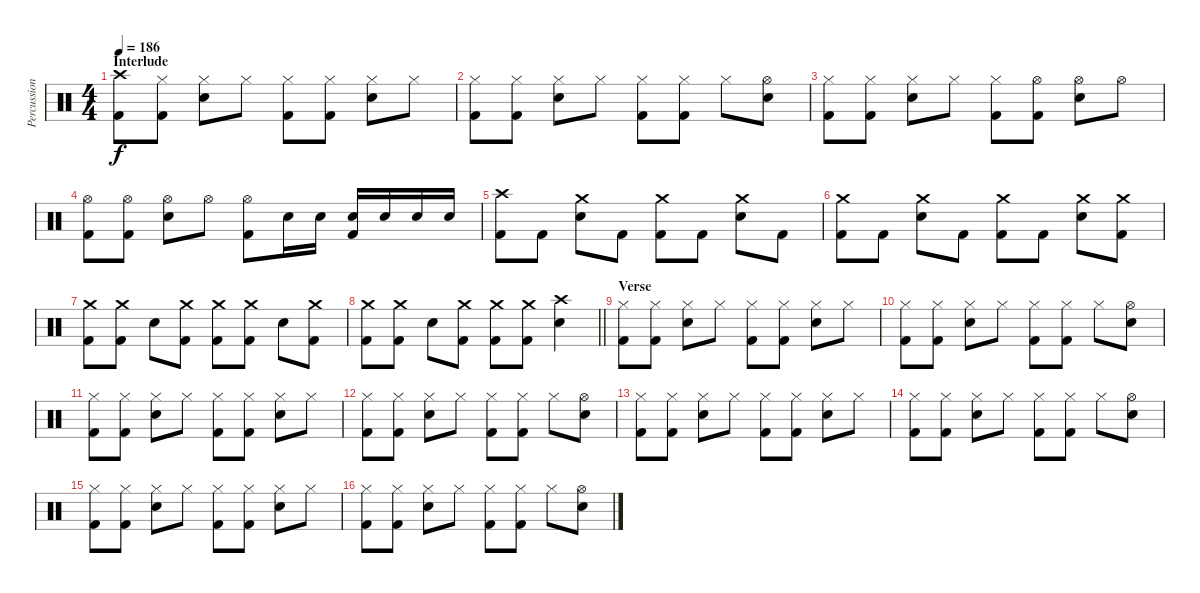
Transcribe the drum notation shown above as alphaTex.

\track ("Percussion" "Percussion") {instrument percussion}
\staff {score}
\articulation defaults
\ts (4 4)
\section ("" "Interlude")
\tempo 186
\clef neutral
\ks c
("Crash high (hit)" "Kick (hit) 2").8{dy f} ("Hi-Hat (closed)" "Kick (hit) 2").8 ("Hi-Hat (closed)" "Electric Snare (hit)").8 "Hi-Hat (closed)".8 ("Hi-Hat (closed)" "Kick (hit) 2").8 ("Hi-Hat (closed)" "Kick (hit) 2").8 ("Hi-Hat (closed)" "Electric Snare (hit)").8 "Hi-Hat (closed)".8 |
("Hi-Hat (closed)" "Kick (hit) 2").8 ("Hi-Hat (closed)" "Kick (hit) 2").8 ("Hi-Hat (closed)" "Electric Snare (hit)").8 "Hi-Hat (closed)".8 ("Hi-Hat (closed)" "Kick (hit) 2").8 ("Hi-Hat (closed)" "Kick (hit) 2").8 "Hi-Hat (closed)".8 ("Hi-Hat (open)" "Electric Snare (hit)").8 |
("Hi-Hat (closed)" "Kick (hit) 2").8 ("Hi-Hat (closed)" "Kick (hit) 2").8 ("Hi-Hat (closed)" "Electric Snare (hit)").8 "Hi-Hat (closed)".8 ("Hi-Hat (closed)" "Kick (hit) 2").8 ("Hi-Hat (open)" "Kick (hit) 2").8 ("Hi-Hat (open)" "Electric Snare (hit)").8 "Hi-Hat (open)".8 |
("Hi-Hat (open)" "Kick (hit) 2").8 ("Hi-Hat (open)" "Kick (hit) 2").8 ("Hi-Hat (open)" "Electric Snare (hit)").8 "Hi-Hat (open)".8 ("Hi-Hat (open)" "Kick (hit) 2").8 "Electric Snare (hit)".16 "Electric Snare (hit)".16 ("Electric Snare (hit)" "Kick (hit) 2").16 "Electric Snare (hit)".16 "Electric Snare (hit)".16 "Electric Snare (hit)".16 |
("Crash high (hit)" "Kick (hit) 2").8 "Kick (hit) 2".8 ("Crash medium (hit)" "Electric Snare (hit)").8 "Kick (hit) 2".8 ("Crash medium (hit)" "Kick (hit) 2").8 "Kick (hit) 2".8 ("Crash medium (hit)" "Electric Snare (hit)").8 "Kick (hit) 2".8 |
("Crash medium (hit)" "Kick (hit) 2").8 "Kick (hit) 2".8 ("Crash medium (hit)" "Electric Snare (hit)").8 "Kick (hit) 2".8 ("Crash medium (hit)" "Kick (hit) 2").8 "Kick (hit) 2".8 ("Crash medium (hit)" "Electric Snare (hit)").8 ("Crash medium (hit)" "Kick (hit) 2").8 |
("Crash medium (hit)" "Kick (hit) 2").8 ("Crash medium (hit)" "Kick (hit) 2").8 "Electric Snare (hit)".8 ("Crash medium (hit)" "Kick (hit) 2").8 ("Crash medium (hit)" "Kick (hit) 2").8 ("Crash medium (hit)" "Kick (hit) 2").8 "Electric Snare (hit)".8 ("Crash medium (hit)" "Kick (hit) 2").8 |
\barLineRight lightlight
("Crash medium (hit)" "Kick (hit) 2").8 ("Crash medium (hit)" "Kick (hit) 2").8 "Electric Snare (hit)".8 ("Crash medium (hit)" "Kick (hit) 2").8 ("Crash medium (hit)" "Kick (hit) 2").8 ("Crash medium (hit)" "Kick (hit) 2").8 ("Crash high (hit)" "Electric Snare (hit)").4 |
\section ("" "Verse")
("Hi-Hat (closed)" "Kick (hit) 2").8 ("Hi-Hat (closed)" "Kick (hit) 2").8 ("Hi-Hat (closed)" "Electric Snare (hit)").8 "Hi-Hat (closed)".8 ("Hi-Hat (closed)" "Kick (hit) 2").8 ("Hi-Hat (closed)" "Kick (hit) 2").8 ("Hi-Hat (closed)" "Electric Snare (hit)").8 "Hi-Hat (closed)".8 |
("Hi-Hat (closed)" "Kick (hit) 2").8 ("Hi-Hat (closed)" "Kick (hit) 2").8 ("Hi-Hat (closed)" "Electric Snare (hit)").8 "Hi-Hat (closed)".8 ("Hi-Hat (closed)" "Kick (hit) 2").8 ("Hi-Hat (closed)" "Kick (hit) 2").8 "Hi-Hat (closed)".8 ("Hi-Hat (open)" "Electric Snare (hit)").8 |
("Hi-Hat (closed)" "Kick (hit) 2").8 ("Hi-Hat (closed)" "Kick (hit) 2").8 ("Hi-Hat (closed)" "Electric Snare (hit)").8 "Hi-Hat (closed)".8 ("Hi-Hat (closed)" "Kick (hit) 2").8 ("Hi-Hat (closed)" "Kick (hit) 2").8 ("Hi-Hat (closed)" "Electric Snare (hit)").8 "Hi-Hat (closed)".8 |
("Hi-Hat (closed)" "Kick (hit) 2").8 ("Hi-Hat (closed)" "Kick (hit) 2").8 ("Hi-Hat (closed)" "Electric Snare (hit)").8 "Hi-Hat (closed)".8 ("Hi-Hat (closed)" "Kick (hit) 2").8 ("Hi-Hat (closed)" "Kick (hit) 2").8 "Hi-Hat (closed)".8 ("Hi-Hat (open)" "Electric Snare (hit)").8 |
("Hi-Hat (closed)" "Kick (hit) 2").8 ("Hi-Hat (closed)" "Kick (hit) 2").8 ("Hi-Hat (closed)" "Electric Snare (hit)").8 "Hi-Hat (closed)".8 ("Hi-Hat (closed)" "Kick (hit) 2").8 ("Hi-Hat (closed)" "Kick (hit) 2").8 ("Hi-Hat (closed)" "Electric Snare (hit)").8 "Hi-Hat (closed)".8 |
("Hi-Hat (closed)" "Kick (hit) 2").8 ("Hi-Hat (closed)" "Kick (hit) 2").8 ("Hi-Hat (closed)" "Electric Snare (hit)").8 "Hi-Hat (closed)".8 ("Hi-Hat (closed)" "Kick (hit) 2").8 ("Hi-Hat (closed)" "Kick (hit) 2").8 "Hi-Hat (closed)".8 ("Hi-Hat (open)" "Electric Snare (hit)").8 |
("Hi-Hat (closed)" "Kick (hit) 2").8 ("Hi-Hat (closed)" "Kick (hit) 2").8 ("Hi-Hat (closed)" "Electric Snare (hit)").8 "Hi-Hat (closed)".8 ("Hi-Hat (closed)" "Kick (hit) 2").8 ("Hi-Hat (closed)" "Kick (hit) 2").8 ("Hi-Hat (closed)" "Electric Snare (hit)").8 "Hi-Hat (closed)".8 |
("Hi-Hat (closed)" "Kick (hit) 2").8 ("Hi-Hat (closed)" "Kick (hit) 2").8 ("Hi-Hat (closed)" "Electric Snare (hit)").8 "Hi-Hat (closed)".8 ("Hi-Hat (closed)" "Kick (hit) 2").8 ("Hi-Hat (closed)" "Kick (hit) 2").8 "Hi-Hat (closed)".8 ("Hi-Hat (open)" "Electric Snare (hit)").8
